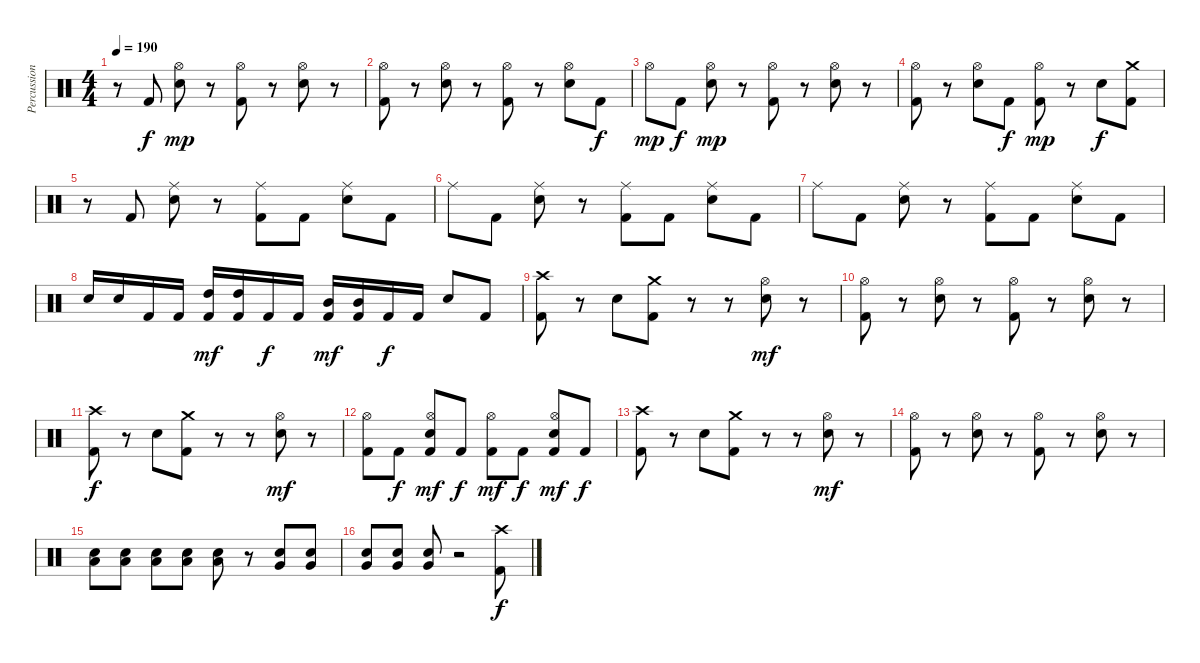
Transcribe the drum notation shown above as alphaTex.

\track ("Percussion" "Percussion") {instrument percussion}
\staff {score}
\articulation defaults
\ts (4 4)
\tempo 190
\clef neutral
\ks c
r.8{dy f} "Kick (hit) 2".8 ("Hi-Hat (open)" "Snare (hit) 2").8{dy mp} r.8 ("Hi-Hat (open)" "Kick (hit) 2").8 r.8 ("Hi-Hat (open)" "Snare (hit) 2").8 r.8 |
("Hi-Hat (open)" "Kick (hit) 2").8 r.8 ("Hi-Hat (open)" "Snare (hit) 2").8 r.8 ("Hi-Hat (open)" "Kick (hit) 2").8 r.8 ("Hi-Hat (open)" "Snare (hit) 2").8 "Kick (hit) 2".8{dy f} |
"Hi-Hat (open)".8{dy mp} "Kick (hit) 2".8{dy f} ("Hi-Hat (open)" "Snare (hit) 2").8{dy mp} r.8 ("Hi-Hat (open)" "Kick (hit) 2").8 r.8 ("Hi-Hat (open)" "Snare (hit) 2").8 r.8 |
("Hi-Hat (open)" "Kick (hit) 2").8 r.8 ("Hi-Hat (open)" "Snare (hit) 2").8 "Kick (hit) 2".8{dy f} ("Hi-Hat (open)" "Kick (hit) 2").8{dy mp} r.8 "Snare (hit) 2".8{dy f} ("Crash medium (hit)" "Kick (hit) 2").8 |
r.8 "Kick (hit) 2".8 ("Ride (middle)" "Snare (hit) 2").8 r.8 ("Ride (middle)" "Kick (hit) 2").8 "Kick (hit) 2".8 ("Ride (middle)" "Snare (hit) 2").8 "Kick (hit) 2".8 |
"Ride (middle)".8 "Kick (hit) 2".8 ("Ride (middle)" "Snare (hit) 2").8 r.8 ("Ride (middle)" "Kick (hit) 2").8 "Kick (hit) 2".8 ("Ride (middle)" "Snare (hit) 2").8 "Kick (hit) 2".8 |
"Ride (middle)".8 "Kick (hit) 2".8 ("Ride (middle)" "Snare (hit) 2").8 r.8 ("Ride (middle)" "Kick (hit) 2").8 "Kick (hit) 2".8 ("Ride (middle)" "Snare (hit) 2").8 "Kick (hit) 2".8 |
"Snare (hit) 2".16 "Snare (hit) 2".16 "Kick (hit) 2".16 "Kick (hit) 2".16 ("High Tom (hit)" "Kick (hit) 2").16{dy mf} ("High Tom (hit)" "Kick (hit) 2").16 "Kick (hit) 2".16{dy f} "Kick (hit) 2".16 ("Mid Tom (hit)" "Kick (hit) 2").16{dy mf} ("Mid Tom (hit)" "Kick (hit) 2").16 "Kick (hit) 2".16{dy f} "Kick (hit) 2".16 "Snare (hit) 2".8 "Kick (hit) 2".8 |
("Crash high (hit)" "Kick (hit) 2").8 r.8 "Snare (hit) 2".8 ("Crash medium (hit)" "Kick (hit) 2").8 r.8 r.8 ("Hi-Hat (open)" "Snare (hit) 2").8{dy mf} r.8 |
("Hi-Hat (open)" "Kick (hit) 2").8 r.8 ("Hi-Hat (open)" "Snare (hit) 2").8 r.8 ("Hi-Hat (open)" "Kick (hit) 2").8 r.8 ("Hi-Hat (open)" "Snare (hit) 2").8 r.8 |
("Crash high (hit)" "Kick (hit) 2").8{dy f} r.8 "Snare (hit) 2".8 ("Crash medium (hit)" "Kick (hit) 2").8 r.8 r.8 ("Hi-Hat (open)" "Snare (hit) 2").8{dy mf} r.8 |
("Hi-Hat (open)" "Kick (hit) 2").8 "Kick (hit) 2".8{dy f} ("Hi-Hat (open)" "Snare (hit) 2" "Kick (hit) 2").8{dy mf} "Kick (hit) 2".8{dy f} ("Hi-Hat (open)" "Kick (hit) 2").8{dy mf} "Kick (hit) 2".8{dy f} ("Hi-Hat (open)" "Snare (hit) 2" "Kick (hit) 2").8{dy mf} "Kick (hit) 2".8{dy f} |
("Crash high (hit)" "Kick (hit) 2").8 r.8 "Snare (hit) 2".8 ("Crash medium (hit)" "Kick (hit) 2").8 r.8 r.8 ("Hi-Hat (open)" "Snare (hit) 2").8{dy mf} r.8 |
("Hi-Hat (open)" "Kick (hit) 2").8 r.8 ("Hi-Hat (open)" "Snare (hit) 2").8 r.8 ("Hi-Hat (open)" "Kick (hit) 2").8 r.8 ("Hi-Hat (open)" "Snare (hit) 2").8 r.8 |
("Snare (hit) 2" "Low Tom (hit)").8 ("Snare (hit) 2" "Low Tom (hit)").8 ("Snare (hit) 2" "Low Tom (hit)").8 ("Snare (hit) 2" "Low Tom (hit)").8 ("Snare (hit) 2" "Low Tom (hit)").8 r.8 ("Snare (hit) 2" "Very Low Tom (hit)").8 ("Snare (hit) 2" "Very Low Tom (hit)").8 |
("Snare (hit) 2" "Very Low Tom (hit)").8 ("Snare (hit) 2" "Very Low Tom (hit)").8 ("Snare (hit) 2" "Very Low Tom (hit)").8 r.2 ("Crash high (hit)" "Kick (hit) 2").8{dy f}
